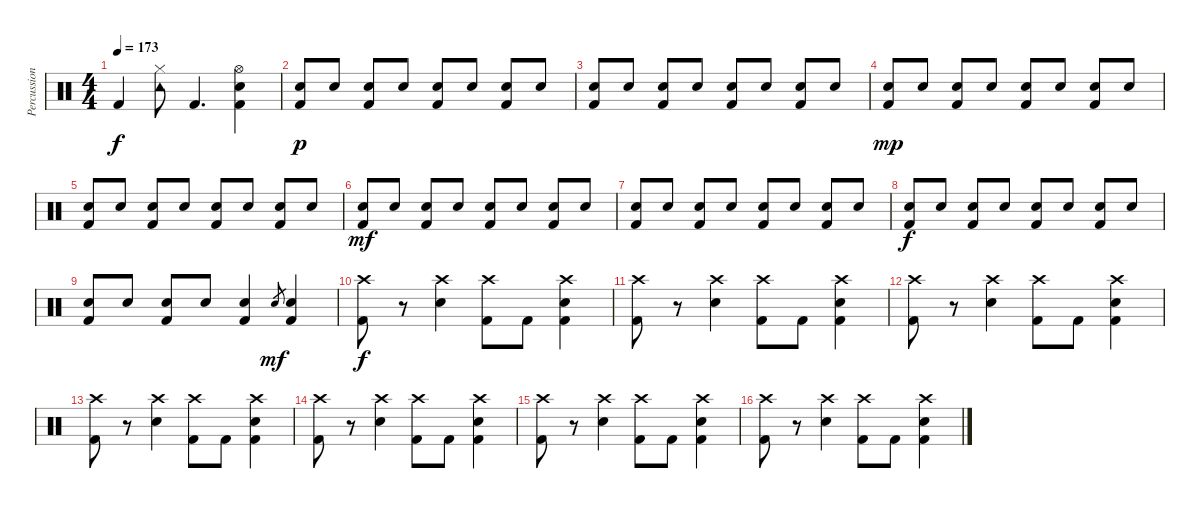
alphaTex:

\track ("Percussion" "Percussion") {instrument percussion}
\staff {score}
\articulation defaults
\ts (4 4)
\tempo 173
\clef neutral
\ks c "Kick (hit) 2".4{dy f}
("Tambourine (hit)" "Hi-Hat (closed)").8 "Kick (hit) 2".4{d} ("Kick (hit) 2" "Snare (hit) 2" "Hi-Hat (open)").4 |
("Kick (hit) 2" "Snare (hit) 2").8{dy p} "Snare (hit) 2".8 ("Kick (hit) 2" "Snare (hit) 2").8 "Snare (hit) 2".8 ("Kick (hit) 2" "Snare (hit) 2").8 "Snare (hit) 2".8 ("Kick (hit) 2" "Snare (hit) 2").8 "Snare (hit) 2".8 |
("Kick (hit) 2" "Snare (hit) 2").8 "Snare (hit) 2".8 ("Kick (hit) 2" "Snare (hit) 2").8 "Snare (hit) 2".8 ("Kick (hit) 2" "Snare (hit) 2").8 "Snare (hit) 2".8 ("Kick (hit) 2" "Snare (hit) 2").8 "Snare (hit) 2".8 |
("Kick (hit) 2" "Snare (hit) 2").8{dy mp} "Snare (hit) 2".8 ("Kick (hit) 2" "Snare (hit) 2").8 "Snare (hit) 2".8 ("Kick (hit) 2" "Snare (hit) 2").8 "Snare (hit) 2".8 ("Kick (hit) 2" "Snare (hit) 2").8 "Snare (hit) 2".8 |
("Kick (hit) 2" "Snare (hit) 2").8 "Snare (hit) 2".8 ("Kick (hit) 2" "Snare (hit) 2").8 "Snare (hit) 2".8 ("Kick (hit) 2" "Snare (hit) 2").8 "Snare (hit) 2".8 ("Kick (hit) 2" "Snare (hit) 2").8 "Snare (hit) 2".8 |
("Kick (hit) 2" "Snare (hit) 2").8{dy mf} "Snare (hit) 2".8 ("Kick (hit) 2" "Snare (hit) 2").8 "Snare (hit) 2".8 ("Kick (hit) 2" "Snare (hit) 2").8 "Snare (hit) 2".8 ("Kick (hit) 2" "Snare (hit) 2").8 "Snare (hit) 2".8 |
("Kick (hit) 2" "Electric Snare (hit)").8 "Electric Snare (hit)".8 ("Kick (hit) 2" "Electric Snare (hit)").8 "Electric Snare (hit)".8 ("Kick (hit) 2" "Electric Snare (hit)").8 "Electric Snare (hit)".8 ("Kick (hit) 2" "Electric Snare (hit)").8 "Electric Snare (hit)".8 |
("Kick (hit) 2" "Electric Snare (hit)").8{dy f} "Electric Snare (hit)".8 ("Kick (hit) 2" "Electric Snare (hit)").8 "Electric Snare (hit)".8 ("Kick (hit) 2" "Electric Snare (hit)").8 "Electric Snare (hit)".8 ("Kick (hit) 2" "Electric Snare (hit)").8 "Electric Snare (hit)".8 |
("Kick (hit) 2" "Electric Snare (hit)").8 "Electric Snare (hit)".8 ("Kick (hit) 2" "Electric Snare (hit)").8 "Electric Snare (hit)".8 ("Kick (hit) 2" "Electric Snare (hit)").4 "Electric Snare (hit)".8{gr dy mf} ("Kick (hit) 2" "Electric Snare (hit)").4 |
("Kick (hit) 2" "Crash high (hit)").8{dy f} r.8 ("Electric Snare (hit)" "Crash high (hit)").4 ("Kick (hit) 2" "Crash high (hit)").8 "Kick (hit) 2".8 ("Kick (hit) 2" "Electric Snare (hit)" "Crash high (hit)").4 |
("Kick (hit) 2" "Crash high (hit)").8 r.8 ("Electric Snare (hit)" "Crash high (hit)").4 ("Kick (hit) 2" "Crash high (hit)").8 "Kick (hit) 2".8 ("Kick (hit) 2" "Electric Snare (hit)" "Crash high (hit)").4 |
("Kick (hit) 2" "Crash high (hit)").8 r.8 ("Electric Snare (hit)" "Crash high (hit)").4 ("Kick (hit) 2" "Crash high (hit)").8 "Kick (hit) 2".8 ("Kick (hit) 2" "Electric Snare (hit)" "Crash high (hit)").4 |
("Kick (hit) 2" "Crash high (hit)").8 r.8 ("Electric Snare (hit)" "Crash high (hit)").4 ("Kick (hit) 2" "Crash high (hit)").8 "Kick (hit) 2".8 ("Kick (hit) 2" "Electric Snare (hit)" "Crash high (hit)").4 |
("Kick (hit) 2" "Crash high (hit)").8 r.8 ("Electric Snare (hit)" "Crash high (hit)").4 ("Kick (hit) 2" "Crash high (hit)").8 "Kick (hit) 2".8 ("Kick (hit) 2" "Electric Snare (hit)" "Crash high (hit)").4 |
("Kick (hit) 2" "Crash high (hit)").8 r.8 ("Electric Snare (hit)" "Crash high (hit)").4 ("Kick (hit) 2" "Crash high (hit)").8 "Kick (hit) 2".8 ("Kick (hit) 2" "Electric Snare (hit)" "Crash high (hit)").4 |
("Kick (hit) 2" "Crash high (hit)").8 r.8 ("Electric Snare (hit)" "Crash high (hit)").4 ("Kick (hit) 2" "Crash high (hit)").8 "Kick (hit) 2".8 ("Kick (hit) 2" "Electric Snare (hit)" "Crash high (hit)").4
